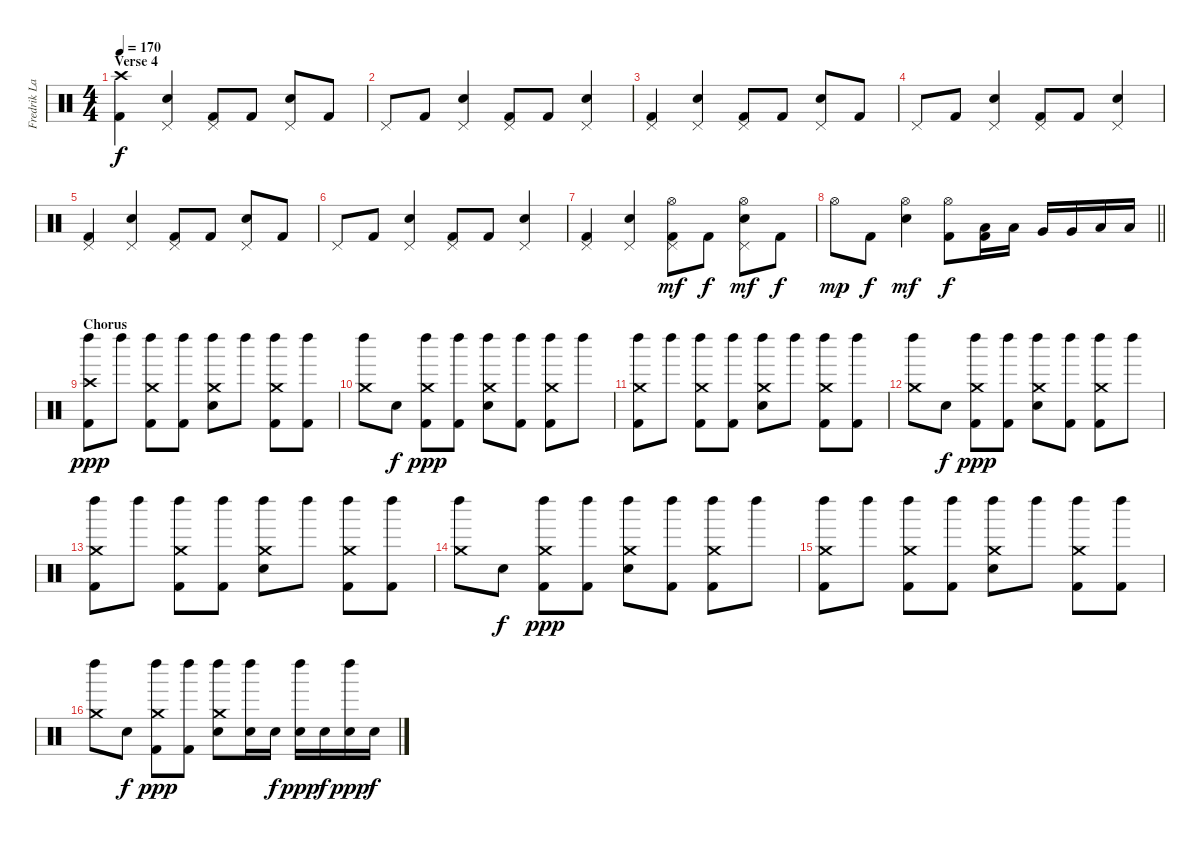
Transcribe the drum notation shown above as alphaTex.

\track ("Fredrik Larzon - Percussion" "Fredrik La") {instrument percussion}
\staff {score}
\articulation defaults
\ts (4 4)
\section ("" "Verse 4")
\tempo 170
\clef neutral
\ks c
("Crash high (hit)" "Kick (hit) 2").4{dy f} ("Pedal Hi-Hat (hit)" "Electric Snare (hit)").4 ("Pedal Hi-Hat (hit)" "Kick (hit) 2").8 "Kick (hit) 2".8 ("Pedal Hi-Hat (hit)" "Electric Snare (hit)").8 "Kick (hit) 2".8 |
"Pedal Hi-Hat (hit)".8 "Kick (hit) 2".8 ("Pedal Hi-Hat (hit)" "Electric Snare (hit)").4 ("Pedal Hi-Hat (hit)" "Kick (hit) 2").8 "Kick (hit) 2".8 ("Pedal Hi-Hat (hit)" "Electric Snare (hit)").4 |
("Pedal Hi-Hat (hit)" "Kick (hit) 2").4 ("Pedal Hi-Hat (hit)" "Electric Snare (hit)").4 ("Pedal Hi-Hat (hit)" "Kick (hit) 2").8 "Kick (hit) 2".8 ("Pedal Hi-Hat (hit)" "Electric Snare (hit)").8 "Kick (hit) 2".8 |
"Pedal Hi-Hat (hit)".8 "Kick (hit) 2".8 ("Pedal Hi-Hat (hit)" "Electric Snare (hit)").4 ("Pedal Hi-Hat (hit)" "Kick (hit) 2").8 "Kick (hit) 2".8 ("Pedal Hi-Hat (hit)" "Electric Snare (hit)").4 |
("Pedal Hi-Hat (hit)" "Kick (hit) 2").4 ("Pedal Hi-Hat (hit)" "Electric Snare (hit)").4 ("Pedal Hi-Hat (hit)" "Kick (hit) 2").8 "Kick (hit) 2".8 ("Pedal Hi-Hat (hit)" "Electric Snare (hit)").8 "Kick (hit) 2".8 |
"Pedal Hi-Hat (hit)".8 "Kick (hit) 2".8 ("Pedal Hi-Hat (hit)" "Electric Snare (hit)").4 ("Pedal Hi-Hat (hit)" "Kick (hit) 2").8 "Kick (hit) 2".8 ("Pedal Hi-Hat (hit)" "Electric Snare (hit)").4 |
("Pedal Hi-Hat (hit)" "Kick (hit) 2").4 ("Pedal Hi-Hat (hit)" "Electric Snare (hit)").4 ("Hi-Hat (open)" "Pedal Hi-Hat (hit)" "Kick (hit) 2").8{dy mf} "Kick (hit) 2".8{dy f} ("Hi-Hat (open)" "Pedal Hi-Hat (hit)" "Electric Snare (hit)").8{dy mf} "Kick (hit) 2".8{dy f} |
\barLineRight lightlight "Hi-Hat (open)".8{dy mp} "Kick (hit) 2".8{dy f}
("Hi-Hat (open)" "Electric Snare (hit)").4{dy mf} ("Hi-Hat (open)" "Kick (hit) 2").8{dy f} ("Low Tom (hit)" "Kick (hit) 2").16 "Low Tom (hit)".16 "Very Low Tom (hit)".16 "Very Low Tom (hit)".16 "Low Floor Tom (hit)".16 "Low Floor Tom (hit)".16 |
\section ("" "Chorus")
("Crash high (hit)" "Left Maraca (hit)" "Kick (hit) 2").8{dy ppp} "Left Maraca (hit)".8 ("Crash medium (hit)" "Left Maraca (hit)" "Kick (hit) 2").8 ("Left Maraca (hit)" "Kick (hit) 2").8 ("Crash medium (hit)" "Left Maraca (hit)" "Electric Snare (hit)").8 "Left Maraca (hit)".8 ("Crash medium (hit)" "Left Maraca (hit)" "Kick (hit) 2").8 ("Left Maraca (hit)" "Kick (hit) 2").8 |
("Crash medium (hit)" "Left Maraca (hit)").8 "Electric Snare (hit)".8{dy f} ("Crash medium (hit)" "Left Maraca (hit)" "Kick (hit) 2").8{dy ppp} ("Left Maraca (hit)" "Kick (hit) 2").8 ("Crash medium (hit)" "Left Maraca (hit)" "Electric Snare (hit)").8 ("Left Maraca (hit)" "Kick (hit) 2").8 ("Crash medium (hit)" "Left Maraca (hit)" "Kick (hit) 2").8 "Left Maraca (hit)".8 |
("Crash medium (hit)" "Left Maraca (hit)" "Kick (hit) 2").8 "Left Maraca (hit)".8 ("Crash medium (hit)" "Left Maraca (hit)" "Kick (hit) 2").8 ("Left Maraca (hit)" "Kick (hit) 2").8 ("Crash medium (hit)" "Left Maraca (hit)" "Electric Snare (hit)").8 "Left Maraca (hit)".8 ("Crash medium (hit)" "Left Maraca (hit)" "Kick (hit) 2").8 ("Left Maraca (hit)" "Kick (hit) 2").8 |
("Crash medium (hit)" "Left Maraca (hit)").8 "Electric Snare (hit)".8{dy f} ("Crash medium (hit)" "Left Maraca (hit)" "Kick (hit) 2").8{dy ppp} ("Left Maraca (hit)" "Kick (hit) 2").8 ("Crash medium (hit)" "Left Maraca (hit)" "Electric Snare (hit)").8 ("Left Maraca (hit)" "Kick (hit) 2").8 ("Crash medium (hit)" "Left Maraca (hit)" "Kick (hit) 2").8 "Left Maraca (hit)".8 |
("Crash medium (hit)" "Left Maraca (hit)" "Kick (hit) 2").8 "Left Maraca (hit)".8 ("Crash medium (hit)" "Left Maraca (hit)" "Kick (hit) 2").8 ("Left Maraca (hit)" "Kick (hit) 2").8 ("Crash medium (hit)" "Left Maraca (hit)" "Electric Snare (hit)").8 "Left Maraca (hit)".8 ("Crash medium (hit)" "Left Maraca (hit)" "Kick (hit) 2").8 ("Left Maraca (hit)" "Kick (hit) 2").8 |
("Crash medium (hit)" "Left Maraca (hit)").8 "Electric Snare (hit)".8{dy f} ("Crash medium (hit)" "Left Maraca (hit)" "Kick (hit) 2").8{dy ppp} ("Left Maraca (hit)" "Kick (hit) 2").8 ("Crash medium (hit)" "Left Maraca (hit)" "Electric Snare (hit)").8 ("Left Maraca (hit)" "Kick (hit) 2").8 ("Crash medium (hit)" "Left Maraca (hit)" "Kick (hit) 2").8 "Left Maraca (hit)".8 |
("Crash medium (hit)" "Left Maraca (hit)" "Kick (hit) 2").8 "Left Maraca (hit)".8 ("Crash medium (hit)" "Left Maraca (hit)" "Kick (hit) 2").8 ("Left Maraca (hit)" "Kick (hit) 2").8 ("Crash medium (hit)" "Left Maraca (hit)" "Electric Snare (hit)").8 "Left Maraca (hit)".8 ("Crash medium (hit)" "Left Maraca (hit)" "Kick (hit) 2").8 ("Left Maraca (hit)" "Kick (hit) 2").8 |
("Crash medium (hit)" "Left Maraca (hit)").8 "Electric Snare (hit)".8{dy f} ("Crash medium (hit)" "Left Maraca (hit)" "Kick (hit) 2").8{dy ppp} ("Left Maraca (hit)" "Kick (hit) 2").8 ("Crash medium (hit)" "Left Maraca (hit)" "Electric Snare (hit)").8 ("Left Maraca (hit)" "Electric Snare (hit)").16 "Electric Snare (hit)".16{dy f} ("Left Maraca (hit)" "Electric Snare (hit)").16{dy ppp} "Electric Snare (hit)".16{dy f} ("Left Maraca (hit)" "Electric Snare (hit)").16{dy ppp} "Electric Snare (hit)".16{dy f}
